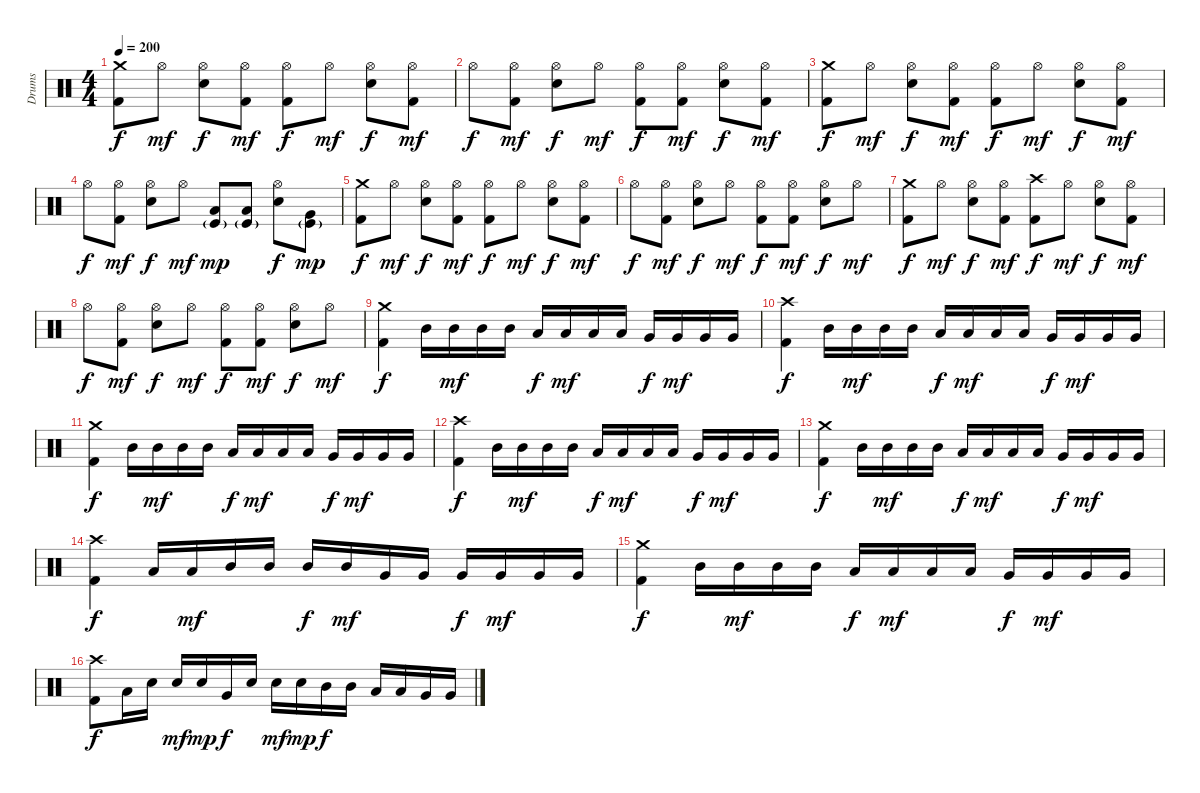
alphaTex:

\track ("Drums" "Drums") {instrument percussion}
\staff {score}
\articulation defaults
\ts (4 4)
\tempo 200
\clef neutral
\ks c
("Crash medium (hit)" "Kick (hit) 2").8{dy f} "Hi-Hat (open)".8{dy mf} ("Hi-Hat (open)" "Electric Snare (hit)").8{dy f} ("Hi-Hat (open)" "Kick (hit) 2").8{dy mf} ("Hi-Hat (open)" "Kick (hit) 2").8{dy f} "Hi-Hat (open)".8{dy mf} ("Hi-Hat (open)" "Electric Snare (hit)").8{dy f} ("Hi-Hat (open)" "Kick (hit) 2").8{dy mf} |
"Hi-Hat (open)".8{dy f} ("Hi-Hat (open)" "Kick (hit) 2").8{dy mf} ("Hi-Hat (open)" "Electric Snare (hit)").8{dy f} "Hi-Hat (open)".8{dy mf} ("Hi-Hat (open)" "Kick (hit) 2").8{dy f} ("Hi-Hat (open)" "Kick (hit) 2").8{dy mf} ("Hi-Hat (open)" "Electric Snare (hit)").8{dy f} ("Hi-Hat (open)" "Kick (hit) 2").8{dy mf} |
("Crash medium (hit)" "Kick (hit) 2").8{dy f} "Hi-Hat (open)".8{dy mf} ("Hi-Hat (open)" "Electric Snare (hit)").8{dy f} ("Hi-Hat (open)" "Kick (hit) 2").8{dy mf} ("Hi-Hat (open)" "Kick (hit) 2").8{dy f} "Hi-Hat (open)".8{dy mf} ("Hi-Hat (open)" "Electric Snare (hit)").8{dy f} ("Hi-Hat (open)" "Kick (hit) 2").8{dy mf} |
"Hi-Hat (open)".8{dy f} ("Hi-Hat (open)" "Kick (hit) 2").8{dy mf} ("Hi-Hat (open)" "Electric Snare (hit)").8{dy f} "Hi-Hat (open)".8{dy mf} ("Low Tom (hit)" "Kick (hit)"{g}).8{dy mp} ("Low Tom (hit)" "Kick (hit)"{g}).8 ("Hi-Hat (open)" "Electric Snare (hit)").8{dy f} ("Very Low Tom (hit)" "Kick (hit)"{g}).8{dy mp} |
("Crash medium (hit)" "Kick (hit) 2").8{dy f} "Hi-Hat (open)".8{dy mf} ("Hi-Hat (open)" "Electric Snare (hit)").8{dy f} ("Hi-Hat (open)" "Kick (hit) 2").8{dy mf} ("Hi-Hat (open)" "Kick (hit) 2").8{dy f} "Hi-Hat (open)".8{dy mf} ("Hi-Hat (open)" "Electric Snare (hit)").8{dy f} ("Hi-Hat (open)" "Kick (hit) 2").8{dy mf} |
"Hi-Hat (open)".8{dy f} ("Hi-Hat (open)" "Kick (hit) 2").8{dy mf} ("Hi-Hat (open)" "Electric Snare (hit)").8{dy f} "Hi-Hat (open)".8{dy mf} ("Hi-Hat (open)" "Kick (hit) 2").8{dy f} ("Hi-Hat (open)" "Kick (hit) 2").8{dy mf} ("Hi-Hat (open)" "Electric Snare (hit)").8{dy f} "Hi-Hat (open)".8{dy mf} |
("Crash medium (hit)" "Kick (hit) 2").8{dy f} "Hi-Hat (open)".8{dy mf} ("Hi-Hat (open)" "Electric Snare (hit)").8{dy f} ("Hi-Hat (open)" "Kick (hit) 2").8{dy mf} ("Crash high (hit)" "Kick (hit) 2").8{dy f} "Hi-Hat (open)".8{dy mf} ("Hi-Hat (open)" "Electric Snare (hit)").8{dy f} ("Hi-Hat (open)" "Kick (hit) 2").8{dy mf} |
"Hi-Hat (open)".8{dy f} ("Hi-Hat (open)" "Kick (hit) 2").8{dy mf} ("Hi-Hat (open)" "Electric Snare (hit)").8{dy f} "Hi-Hat (open)".8{dy mf} ("Hi-Hat (open)" "Kick (hit) 2").8{dy f} ("Hi-Hat (open)" "Kick (hit) 2").8{dy mf} ("Hi-Hat (open)" "Electric Snare (hit)").8{dy f} "Hi-Hat (open)".8{dy mf} |
("Crash medium (hit)" "Kick (hit) 2").4{dy f} "Mid Tom (hit)".16 "Mid Tom (hit)".16{dy mf} "Mid Tom (hit)".16 "Mid Tom (hit)".16 "Low Tom (hit)".16{dy f} "Low Tom (hit)".16{dy mf} "Low Tom (hit)".16 "Low Tom (hit)".16 "Very Low Tom (hit)".16{dy f} "Very Low Tom (hit)".16{dy mf} "Very Low Tom (hit)".16 "Very Low Tom (hit)".16 |
("Crash high (hit)" "Kick (hit) 2").4{dy f} "Mid Tom (hit)".16 "Mid Tom (hit)".16{dy mf} "Mid Tom (hit)".16 "Mid Tom (hit)".16 "Low Tom (hit)".16{dy f} "Low Tom (hit)".16{dy mf} "Low Tom (hit)".16 "Low Tom (hit)".16 "Very Low Tom (hit)".16{dy f} "Very Low Tom (hit)".16{dy mf} "Very Low Tom (hit)".16 "Very Low Tom (hit)".16 |
("Crash medium (hit)" "Kick (hit) 2").4{dy f} "Mid Tom (hit)".16 "Mid Tom (hit)".16{dy mf} "Mid Tom (hit)".16 "Mid Tom (hit)".16 "Low Tom (hit)".16{dy f} "Low Tom (hit)".16{dy mf} "Low Tom (hit)".16 "Low Tom (hit)".16 "Very Low Tom (hit)".16{dy f} "Very Low Tom (hit)".16{dy mf} "Very Low Tom (hit)".16 "Very Low Tom (hit)".16 |
("Crash high (hit)" "Kick (hit) 2").4{dy f} "Mid Tom (hit)".16 "Mid Tom (hit)".16{dy mf} "Mid Tom (hit)".16 "Mid Tom (hit)".16 "Low Tom (hit)".16{dy f} "Low Tom (hit)".16{dy mf} "Low Tom (hit)".16 "Low Tom (hit)".16 "Very Low Tom (hit)".16{dy f} "Very Low Tom (hit)".16{dy mf} "Very Low Tom (hit)".16 "Very Low Tom (hit)".16 |
("Crash medium (hit)" "Kick (hit) 2").4{dy f} "Mid Tom (hit)".16 "Mid Tom (hit)".16{dy mf} "Mid Tom (hit)".16 "Mid Tom (hit)".16 "Low Tom (hit)".16{dy f} "Low Tom (hit)".16{dy mf} "Low Tom (hit)".16 "Low Tom (hit)".16 "Very Low Tom (hit)".16{dy f} "Very Low Tom (hit)".16{dy mf} "Very Low Tom (hit)".16 "Very Low Tom (hit)".16 |
("Crash high (hit)" "Kick (hit) 2").4{dy f} "Low Tom (hit)".16 "Low Tom (hit)".16{dy mf} "Mid Tom (hit)".16 "Mid Tom (hit)".16 "Mid Tom (hit)".16{dy f} "Mid Tom (hit)".16{dy mf} "Very Low Tom (hit)".16 "Very Low Tom (hit)".16 "Very Low Tom (hit)".16{dy f} "Very Low Tom (hit)".16{dy mf} "Very Low Tom (hit)".16 "Very Low Tom (hit)".16 |
("Crash medium (hit)" "Kick (hit) 2").4{dy f} "Mid Tom (hit)".16 "Mid Tom (hit)".16{dy mf} "Mid Tom (hit)".16 "Mid Tom (hit)".16 "Low Tom (hit)".16{dy f} "Low Tom (hit)".16{dy mf} "Low Tom (hit)".16 "Low Tom (hit)".16 "Very Low Tom (hit)".16{dy f} "Very Low Tom (hit)".16{dy mf} "Very Low Tom (hit)".16 "Very Low Tom (hit)".16 |
("Crash high (hit)" "Kick (hit) 2").8{dy f} "Low Tom (hit)".16 "Electric Snare (hit)".16 "Electric Snare (hit)".16{dy mf} "Electric Snare (hit)".16{dy mp} "Very Low Tom (hit)".16{dy f} "Electric Snare (hit)".16 "Electric Snare (hit)".16{dy mf} "Electric Snare (hit)".16{dy mp} "Mid Tom (hit)".16{dy f} "Mid Tom (hit)".16 "Low Tom (hit)".16 "Low Tom (hit)".16 "Very Low Tom (hit)".16 "Very Low Tom (hit)".16
